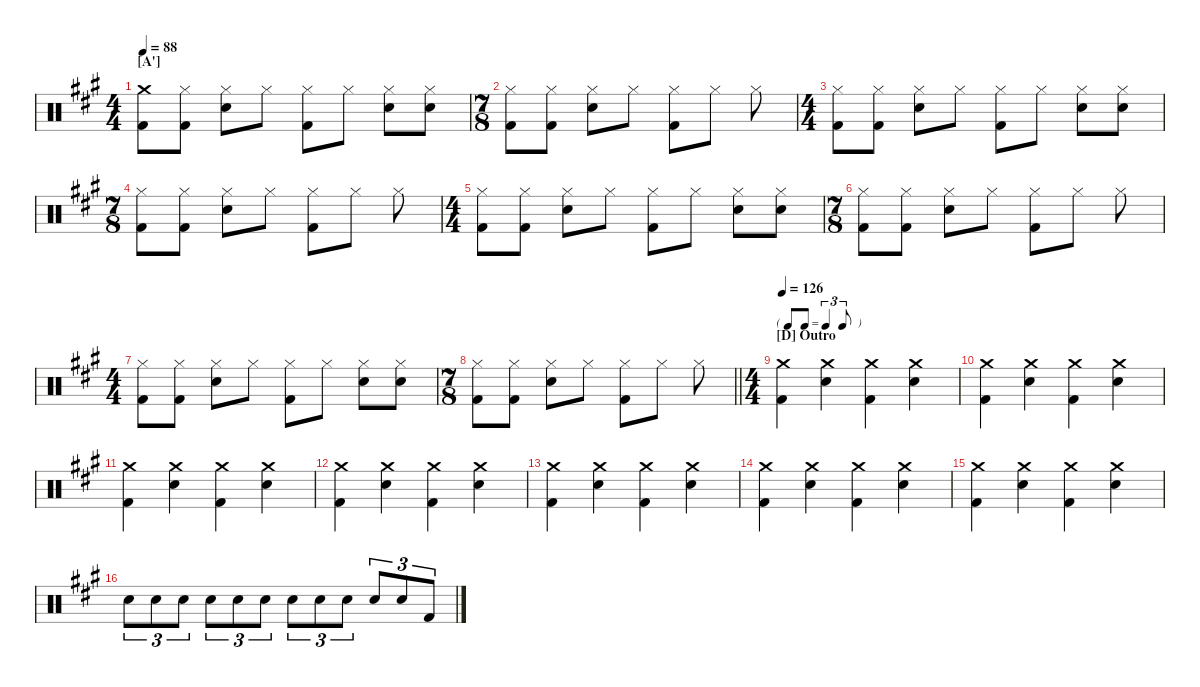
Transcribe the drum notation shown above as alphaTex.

\hideDynamics
\bracketExtendMode nobrackets
\singleTrackTrackNamePolicy hidden
\multiTrackTrackNamePolicy hidden
\firstSystemTrackNameMode fullname
\firstSystemTrackNameOrientation horizontal
\otherSystemsTrackNameOrientation horizontal
\track ("Drumkit" "Drums") {defaultSystemsLayout 4 instrument percussion}
\staff {score}
\articulation defaults
\ts (4 4)
\beaming (8 2 2 2 2)
\section ("A'" "")
\scale
0.532468
\tempo 88
\accidentals auto
\clef neutral
\ottava regular
\simile none
\ks a
("Crash medium (hit)"{acc forcenatural} "Kick (hit) 2"{acc forcenatural}).8{dy f beam Down} ("Hi-Hat (closed)"{acc forcenatural} "Kick (hit) 2"{acc forcenatural}).8{beam Down} ("Hi-Hat (closed)"{acc forcenatural} "Snare (hit) 2"{acc forcenatural}).8{beam Down} "Hi-Hat (closed)"{acc forcenatural}.8{beam Down} ("Hi-Hat (closed)"{acc forcenatural} "Kick (hit) 2"{acc forcenatural}).8{beam Down} "Hi-Hat (closed)"{acc forcenatural}.8{beam Down} ("Hi-Hat (closed)"{acc forcenatural} "Snare (hit) 2"{acc forcenatural}).8{beam Down} ("Hi-Hat (closed)"{acc forcenatural} "Snare (hit) 2"{acc forcenatural}).8{beam Down} |
\ts (7 8)
\beaming (8 2 2 2 1)
\scale
0.467532 ("Hi-Hat (closed)"{acc forcenatural} "Kick (hit) 2"{acc forcenatural}).8{beam Down} ("Hi-Hat (closed)"{acc forcenatural} "Kick (hit) 2"{acc forcenatural}).8{beam Down} ("Hi-Hat (closed)"{acc forcenatural} "Snare (hit) 2"{acc forcenatural}).8{beam Down} "Hi-Hat (closed)"{acc forcenatural}.8{beam Down} ("Hi-Hat (closed)"{acc forcenatural} "Kick (hit) 2"{acc forcenatural}).8{beam Down} "Hi-Hat (closed)"{acc forcenatural}.8{beam Down} "Hi-Hat (closed)"{acc forcenatural}.8{beam Down} |
\ts (4 4)
\beaming (8 2 2 2 2)
\scale
0.534196 ("Hi-Hat (closed)"{acc forcenatural} "Kick (hit) 2"{acc forcenatural}).8{beam Down} ("Hi-Hat (closed)"{acc forcenatural} "Kick (hit) 2"{acc forcenatural}).8{beam Down} ("Hi-Hat (closed)"{acc forcenatural} "Snare (hit) 2"{acc forcenatural}).8{beam Down} "Hi-Hat (closed)"{acc forcenatural}.8{beam Down} ("Hi-Hat (closed)"{acc forcenatural} "Kick (hit) 2"{acc forcenatural}).8{beam Down} "Hi-Hat (closed)"{acc forcenatural}.8{beam Down} ("Hi-Hat (closed)"{acc forcenatural} "Snare (hit) 2"{acc forcenatural}).8{beam Down} ("Hi-Hat (closed)"{acc forcenatural} "Snare (hit) 2"{acc forcenatural}).8{beam Down} |
\ts (7 8)
\beaming (8 2 2 2 1)
\scale
0.465804 ("Hi-Hat (closed)"{acc forcenatural} "Kick (hit) 2"{acc forcenatural}).8{beam Down} ("Hi-Hat (closed)"{acc forcenatural} "Kick (hit) 2"{acc forcenatural}).8{beam Down} ("Hi-Hat (closed)"{acc forcenatural} "Snare (hit) 2"{acc forcenatural}).8{beam Down} "Hi-Hat (closed)"{acc forcenatural}.8{beam Down} ("Hi-Hat (closed)"{acc forcenatural} "Kick (hit) 2"{acc forcenatural}).8{beam Down} "Hi-Hat (closed)"{acc forcenatural}.8{beam Down} "Hi-Hat (closed)"{acc forcenatural}.8{beam Down} |
\ts (4 4)
\beaming (8 2 2 2 2)
\scale
0.534196 ("Hi-Hat (closed)"{acc forcenatural} "Kick (hit) 2"{acc forcenatural}).8{beam Down} ("Hi-Hat (closed)"{acc forcenatural} "Kick (hit) 2"{acc forcenatural}).8{beam Down} ("Hi-Hat (closed)"{acc forcenatural} "Snare (hit) 2"{acc forcenatural}).8{beam Down} "Hi-Hat (closed)"{acc forcenatural}.8{beam Down} ("Hi-Hat (closed)"{acc forcenatural} "Kick (hit) 2"{acc forcenatural}).8{beam Down} "Hi-Hat (closed)"{acc forcenatural}.8{beam Down} ("Hi-Hat (closed)"{acc forcenatural} "Snare (hit) 2"{acc forcenatural}).8{beam Down} ("Hi-Hat (closed)"{acc forcenatural} "Snare (hit) 2"{acc forcenatural}).8{beam Down} |
\ts (7 8)
\beaming (8 2 2 2 1)
\scale
0.465804 ("Hi-Hat (closed)"{acc forcenatural} "Kick (hit) 2"{acc forcenatural}).8{beam Down} ("Hi-Hat (closed)"{acc forcenatural} "Kick (hit) 2"{acc forcenatural}).8{beam Down} ("Hi-Hat (closed)"{acc forcenatural} "Snare (hit) 2"{acc forcenatural}).8{beam Down} "Hi-Hat (closed)"{acc forcenatural}.8{beam Down} ("Hi-Hat (closed)"{acc forcenatural} "Kick (hit) 2"{acc forcenatural}).8{beam Down} "Hi-Hat (closed)"{acc forcenatural}.8{beam Down} "Hi-Hat (closed)"{acc forcenatural}.8{beam Down} |
\ts (4 4)
\beaming (8 2 2 2 2)
\scale
0.534196 ("Hi-Hat (closed)"{acc forcenatural} "Kick (hit) 2"{acc forcenatural}).8{beam Down} ("Hi-Hat (closed)"{acc forcenatural} "Kick (hit) 2"{acc forcenatural}).8{beam Down} ("Hi-Hat (closed)"{acc forcenatural} "Snare (hit) 2"{acc forcenatural}).8{beam Down} "Hi-Hat (closed)"{acc forcenatural}.8{beam Down} ("Hi-Hat (closed)"{acc forcenatural} "Kick (hit) 2"{acc forcenatural}).8{beam Down} "Hi-Hat (closed)"{acc forcenatural}.8{beam Down} ("Hi-Hat (closed)"{acc forcenatural} "Snare (hit) 2"{acc forcenatural}).8{beam Down} ("Hi-Hat (closed)"{acc forcenatural} "Snare (hit) 2"{acc forcenatural}).8{beam Down} |
\ts (7 8)
\beaming (8 2 2 2 1)
\scale
0.465804
\barLineRight lightlight
("Hi-Hat (closed)"{acc forcenatural} "Kick (hit) 2"{acc forcenatural}).8{beam Down} ("Hi-Hat (closed)"{acc forcenatural} "Kick (hit) 2"{acc forcenatural}).8{beam Down} ("Hi-Hat (closed)"{acc forcenatural} "Snare (hit) 2"{acc forcenatural}).8{beam Down} "Hi-Hat (closed)"{acc forcenatural}.8{beam Down} ("Hi-Hat (closed)"{acc forcenatural} "Kick (hit) 2"{acc forcenatural}).8{beam Down} "Hi-Hat (closed)"{acc forcenatural}.8{beam Down} "Hi-Hat (closed)"{acc forcenatural}.8{beam Down} |
\ts (4 4)
\beaming (8 2 2 2 2)
\tf triplet8th
\section ("D" "Outro")
\scale
0.518072
\tempo 126
("Crash medium (hit)"{acc forcenatural} "Kick (hit) 2"{acc forcenatural}).4{beam Down} ("Crash medium (hit)"{acc forcenatural} "Snare (hit) 2"{acc forcenatural}).4{beam Down} ("Crash medium (hit)"{acc forcenatural} "Kick (hit) 2"{acc forcenatural}).4{beam Down} ("Crash medium (hit)"{acc forcenatural} "Snare (hit) 2"{acc forcenatural}).4{beam Down} |
\scale
0.481928 ("Crash medium (hit)"{acc forcenatural} "Kick (hit) 2"{acc forcenatural}).4{beam Down} ("Crash medium (hit)"{acc forcenatural} "Snare (hit) 2"{acc forcenatural}).4{beam Down} ("Crash medium (hit)"{acc forcenatural} "Kick (hit) 2"{acc forcenatural}).4{beam Down} ("Crash medium (hit)"{acc forcenatural} "Snare (hit) 2"{acc forcenatural}).4{beam Down} |
\scale
0.5 ("Crash medium (hit)"{acc forcenatural} "Kick (hit) 2"{acc forcenatural}).4{beam Down} ("Crash medium (hit)"{acc forcenatural} "Snare (hit) 2"{acc forcenatural}).4{beam Down} ("Crash medium (hit)"{acc forcenatural} "Kick (hit) 2"{acc forcenatural}).4{beam Down} ("Crash medium (hit)"{acc forcenatural} "Snare (hit) 2"{acc forcenatural}).4{beam Down} |
\scale
0.5 ("Crash medium (hit)"{acc forcenatural} "Kick (hit) 2"{acc forcenatural}).4{beam Down} ("Crash medium (hit)"{acc forcenatural} "Snare (hit) 2"{acc forcenatural}).4{beam Down} ("Crash medium (hit)"{acc forcenatural} "Kick (hit) 2"{acc forcenatural}).4{beam Down} ("Crash medium (hit)"{acc forcenatural} "Snare (hit) 2"{acc forcenatural}).4{beam Down} |
\scale
0.488798 ("Crash medium (hit)"{acc forcenatural} "Kick (hit) 2"{acc forcenatural}).4{beam Down} ("Crash medium (hit)"{acc forcenatural} "Snare (hit) 2"{acc forcenatural}).4{beam Down} ("Crash medium (hit)"{acc forcenatural} "Kick (hit) 2"{acc forcenatural}).4{beam Down} ("Crash medium (hit)"{acc forcenatural} "Snare (hit) 2"{acc forcenatural}).4{beam Down} |
\scale
0.511202 ("Crash medium (hit)"{acc forcenatural} "Kick (hit) 2"{acc forcenatural}).4{beam Down} ("Crash medium (hit)"{acc forcenatural} "Snare (hit) 2"{acc forcenatural}).4{beam Down} ("Crash medium (hit)"{acc forcenatural} "Kick (hit) 2"{acc forcenatural}).4{beam Down} ("Crash medium (hit)"{acc forcenatural} "Snare (hit) 2"{acc forcenatural}).4{beam Down} |
\scale
0.5 ("Crash medium (hit)"{acc forcenatural} "Kick (hit) 2"{acc forcenatural}).4{beam Down} ("Crash medium (hit)"{acc forcenatural} "Snare (hit) 2"{acc forcenatural}).4{beam Down} ("Crash medium (hit)"{acc forcenatural} "Kick (hit) 2"{acc forcenatural}).4{beam Down} ("Crash medium (hit)"{acc forcenatural} "Snare (hit) 2"{acc forcenatural}).4{beam Down} |
\scale
0.5 "Snare (hit) 2"{acc forcenatural}.8{tu (3 2) beam Down} "Snare (hit) 2"{acc forcenatural}.8{tu (3 2) beam Down} "Snare (hit) 2"{acc forcenatural}.8{tu (3 2) beam Down} "Snare (hit) 2"{acc forcenatural}.8{tu (3 2) beam Down} "Snare (hit) 2"{acc forcenatural}.8{tu (3 2) beam Down} "Snare (hit) 2"{acc forcenatural}.8{tu (3 2) beam Down} "Snare (hit) 2"{acc forcenatural}.8{tu (3 2) beam Down} "Snare (hit) 2"{acc forcenatural}.8{tu (3 2) beam Down} "Snare (hit) 2"{acc forcenatural}.8{tu (3 2) beam Down} "Snare (hit) 2"{acc forcenatural}.8{tu (3 2) beam Up} "Snare (hit) 2"{acc forcenatural}.8{tu (3 2) beam Up} "Kick (hit) 2"{acc forcenatural}.8{tu (3 2) beam Up}
